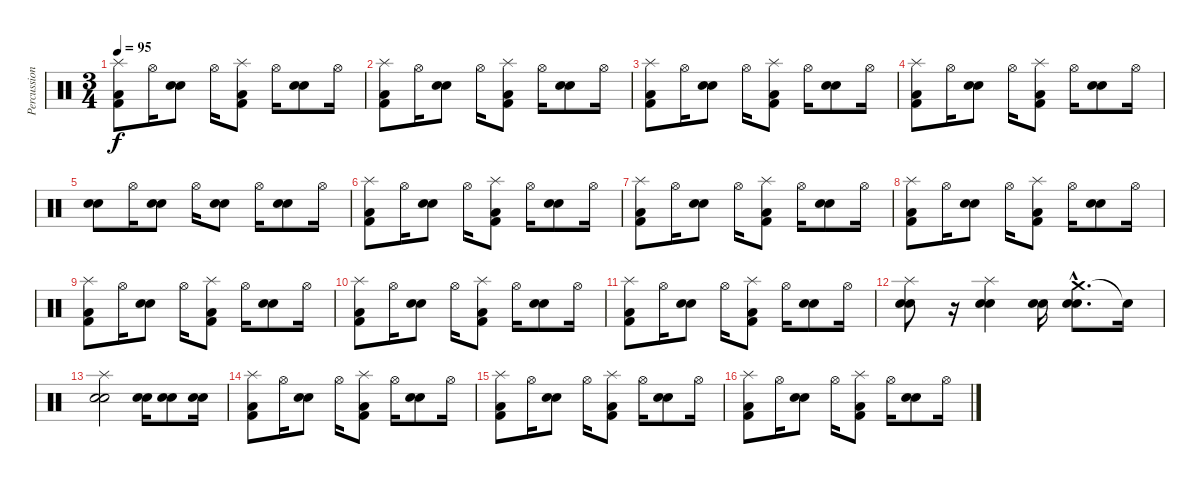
\track ("Percussions" "Percussion") {instrument percussion}
\staff {score}
\articulation defaults
\ts (3 4)
\tempo 95
\clef neutral
\ks c
("Splash (hit)" "Kick (hit) 2" "Low Floor Tom (hit)").8{dy f} "Hi-Hat (open)".16 ("Snare (hit) 2" "Electric Snare (hit)").8 "Hi-Hat (open)".16 ("Splash (hit)" "Kick (hit) 2" "Low Floor Tom (hit)").8 "Hi-Hat (open)".16 ("Snare (hit) 2" "Electric Snare (hit)").8 "Hi-Hat (open)".16 |
("Splash (hit)" "Kick (hit) 2" "Low Floor Tom (hit)").8 "Hi-Hat (open)".16 ("Snare (hit) 2" "Electric Snare (hit)").8 "Hi-Hat (open)".16 ("Splash (hit)" "Kick (hit) 2" "Low Floor Tom (hit)").8 "Hi-Hat (open)".16 ("Snare (hit) 2" "Electric Snare (hit)").8 "Hi-Hat (open)".16 |
("Splash (hit)" "Kick (hit) 2" "Low Floor Tom (hit)").8 "Hi-Hat (open)".16 ("Snare (hit) 2" "Electric Snare (hit)").8 "Hi-Hat (open)".16 ("Splash (hit)" "Kick (hit) 2" "Low Floor Tom (hit)").8 "Hi-Hat (open)".16 ("Snare (hit) 2" "Electric Snare (hit)").8 "Hi-Hat (open)".16 |
("Splash (hit)" "Kick (hit) 2" "Low Floor Tom (hit)").8 "Hi-Hat (open)".16 ("Snare (hit) 2" "Electric Snare (hit)").8 "Hi-Hat (open)".16 ("Splash (hit)" "Kick (hit) 2" "Low Floor Tom (hit)").8 "Hi-Hat (open)".16 ("Snare (hit) 2" "Electric Snare (hit)").8 "Hi-Hat (open)".16 |
("Snare (hit) 2" "Electric Snare (hit)").8 "Hi-Hat (open)".16 ("Snare (hit) 2" "Electric Snare (hit)").8 "Hi-Hat (open)".16 ("Snare (hit) 2" "Electric Snare (hit)").8 "Hi-Hat (open)".16 ("Snare (hit) 2" "Electric Snare (hit)").8 "Hi-Hat (open)".16 |
("Splash (hit)" "Kick (hit) 2" "Low Floor Tom (hit)").8 "Hi-Hat (open)".16 ("Snare (hit) 2" "Electric Snare (hit)").8 "Hi-Hat (open)".16 ("Splash (hit)" "Kick (hit) 2" "Low Floor Tom (hit)").8 "Hi-Hat (open)".16 ("Snare (hit) 2" "Electric Snare (hit)").8 "Hi-Hat (open)".16 |
("Splash (hit)" "Kick (hit) 2" "Low Floor Tom (hit)").8 "Hi-Hat (open)".16 ("Snare (hit) 2" "Electric Snare (hit)").8 "Hi-Hat (open)".16 ("Splash (hit)" "Kick (hit) 2" "Low Floor Tom (hit)").8 "Hi-Hat (open)".16 ("Snare (hit) 2" "Electric Snare (hit)").8 "Hi-Hat (open)".16 |
("Splash (hit)" "Kick (hit) 2" "Low Floor Tom (hit)").8 "Hi-Hat (open)".16 ("Snare (hit) 2" "Electric Snare (hit)").8 "Hi-Hat (open)".16 ("Splash (hit)" "Kick (hit) 2" "Low Floor Tom (hit)").8 "Hi-Hat (open)".16 ("Snare (hit) 2" "Electric Snare (hit)").8 "Hi-Hat (open)".16 |
("Splash (hit)" "Kick (hit) 2" "Low Floor Tom (hit)").8 "Hi-Hat (open)".16 ("Snare (hit) 2" "Electric Snare (hit)").8 "Hi-Hat (open)".16 ("Splash (hit)" "Kick (hit) 2" "Low Floor Tom (hit)").8 "Hi-Hat (open)".16 ("Snare (hit) 2" "Electric Snare (hit)").8 "Hi-Hat (open)".16 |
("Splash (hit)" "Kick (hit) 2" "Low Floor Tom (hit)").8 "Hi-Hat (open)".16 ("Snare (hit) 2" "Electric Snare (hit)").8 "Hi-Hat (open)".16 ("Splash (hit)" "Kick (hit) 2" "Low Floor Tom (hit)").8 "Hi-Hat (open)".16 ("Snare (hit) 2" "Electric Snare (hit)").8 "Hi-Hat (open)".16 |
("Splash (hit)" "Kick (hit) 2" "Low Floor Tom (hit)").8 "Hi-Hat (open)".16 ("Snare (hit) 2" "Electric Snare (hit)").8 "Hi-Hat (open)".16 ("Splash (hit)" "Kick (hit) 2" "Low Floor Tom (hit)").8 "Hi-Hat (open)".16 ("Snare (hit) 2" "Electric Snare (hit)").8 "Hi-Hat (open)".16 |
("Splash (hit)" "Snare (hit) 2" "Electric Snare (hit)").8 r.16 ("Splash (hit)" "Snare (hit) 2" "Electric Snare (hit)").4 ("Snare (hit) 2" "Electric Snare (hit)").16 ("Crash medium (hit)"{hac} "Snare (hit) 2"{hac} "Electric Snare (hit)"{hac}).8{d} "Electric Snare (hit)"{t}.16 |
("Splash (hit)" "Snare (hit) 2" "Electric Snare (hit)").2 ("Snare (hit) 2" "Electric Snare (hit)").16 ("Snare (hit) 2" "Electric Snare (hit)").8 ("Snare (hit) 2" "Electric Snare (hit)").16 |
("Splash (hit)" "Kick (hit) 2" "Low Floor Tom (hit)").8 "Hi-Hat (open)".16 ("Snare (hit) 2" "Electric Snare (hit)").8 "Hi-Hat (open)".16 ("Splash (hit)" "Kick (hit) 2" "Low Floor Tom (hit)").8 "Hi-Hat (open)".16 ("Snare (hit) 2" "Electric Snare (hit)").8 "Hi-Hat (open)".16 |
("Splash (hit)" "Kick (hit) 2" "Low Floor Tom (hit)").8 "Hi-Hat (open)".16 ("Snare (hit) 2" "Electric Snare (hit)").8 "Hi-Hat (open)".16 ("Splash (hit)" "Kick (hit) 2" "Low Floor Tom (hit)").8 "Hi-Hat (open)".16 ("Snare (hit) 2" "Electric Snare (hit)").8 "Hi-Hat (open)".16 |
("Splash (hit)" "Kick (hit) 2" "Low Floor Tom (hit)").8 "Hi-Hat (open)".16 ("Snare (hit) 2" "Electric Snare (hit)").8 "Hi-Hat (open)".16 ("Splash (hit)" "Kick (hit) 2" "Low Floor Tom (hit)").8 "Hi-Hat (open)".16 ("Snare (hit) 2" "Electric Snare (hit)").8 "Hi-Hat (open)".16
